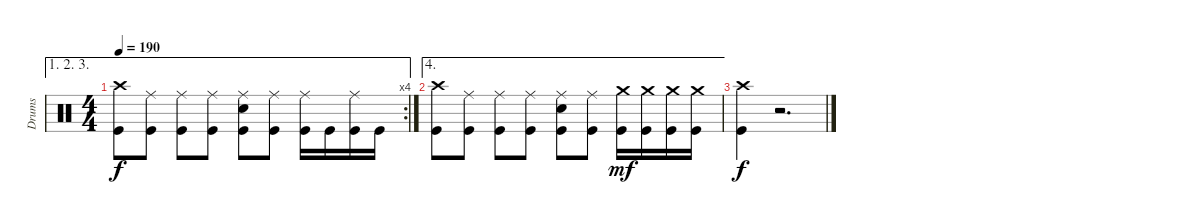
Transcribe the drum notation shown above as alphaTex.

\track ("Drums" "Drums") {instrument percussion}
\staff {score}
\articulation defaults
\ae (1 2 3)
\rc 4
\ts (4 4)
\tempo 190
\clef neutral
\ks c
("Crash high (hit)" "Kick (hit)").8{dy f} ("Ride (middle)" "Kick (hit)").8 ("Ride (middle)" "Kick (hit)").8 ("Ride (middle)" "Kick (hit)").8 ("Ride (middle)" "Electric Snare (hit)" "Kick (hit)").8 ("Ride (middle)" "Kick (hit)").8 ("Ride (middle)" "Kick (hit)").16 "Kick (hit)".16 ("Ride (middle)" "Kick (hit)").16 "Kick (hit)".16 |
\ae 4
("Crash high (hit)" "Kick (hit)").8 ("Ride (middle)" "Kick (hit)").8 ("Ride (middle)" "Kick (hit)").8 ("Ride (middle)" "Kick (hit)").8 ("Ride (middle)" "Electric Snare (hit)" "Kick (hit)").8 ("Ride (middle)" "Kick (hit)").8 ("Crash medium (hit)" "Kick (hit)").16{dy mf} ("Crash medium (hit)" "Kick (hit)").16 ("Crash medium (hit)" "Kick (hit)").16 ("Crash medium (hit)" "Kick (hit)").16 |
("Crash high (hit)" "Kick (hit)").4{dy f} r.2{d volume 0}
